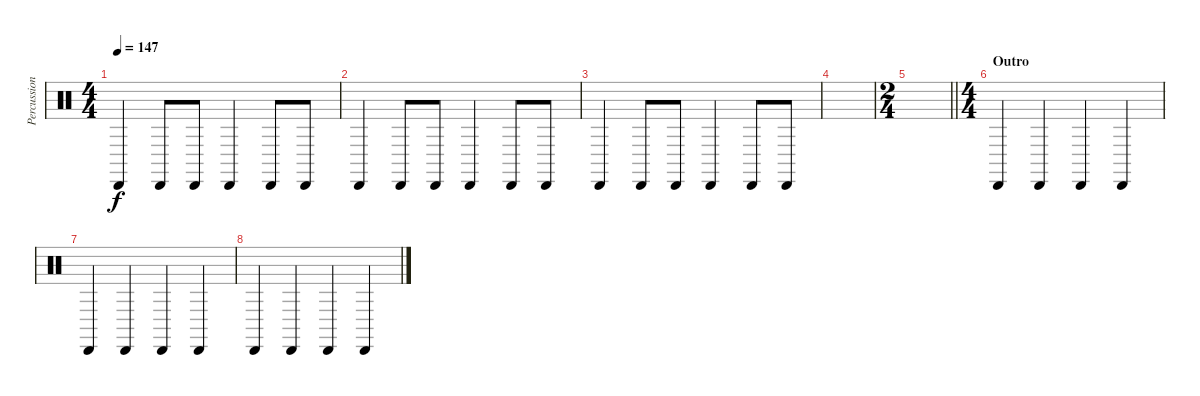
\track ("Percussion (Matt Laug)" "Percussion") {instrument percussion}
\staff {score}
\articulation defaults
\ts (4 4)
\tempo 147
\clef neutral
\ks c "Cabasa (hit)".4{dy f} "Cabasa (hit)".8 "Cabasa (hit)".8 "Cabasa (hit)".4 "Cabasa (hit)".8 "Cabasa (hit)".8
|
"Cabasa (hit)".4 "Cabasa (hit)".8 "Cabasa (hit)".8 "Cabasa (hit)".4 "Cabasa (hit)".8 "Cabasa (hit)".8 |
"Cabasa (hit)".4 "Cabasa (hit)".8 "Cabasa (hit)".8 "Cabasa (hit)".4 "Cabasa (hit)".8 "Cabasa (hit)".8 |
|
\ts (2 4)
\barLineRight lightlight
|
\ts (4 4)
\section ("" "Outro")
"Cabasa (hit)".4 "Cabasa (hit)".4 "Cabasa (hit)".4 "Cabasa (hit)".4 |
"Cabasa (hit)".4 "Cabasa (hit)".4 "Cabasa (hit)".4 "Cabasa (hit)".4 |
"Cabasa (hit)".4 "Cabasa (hit)".4 "Cabasa (hit)".4 "Cabasa (hit)".4
